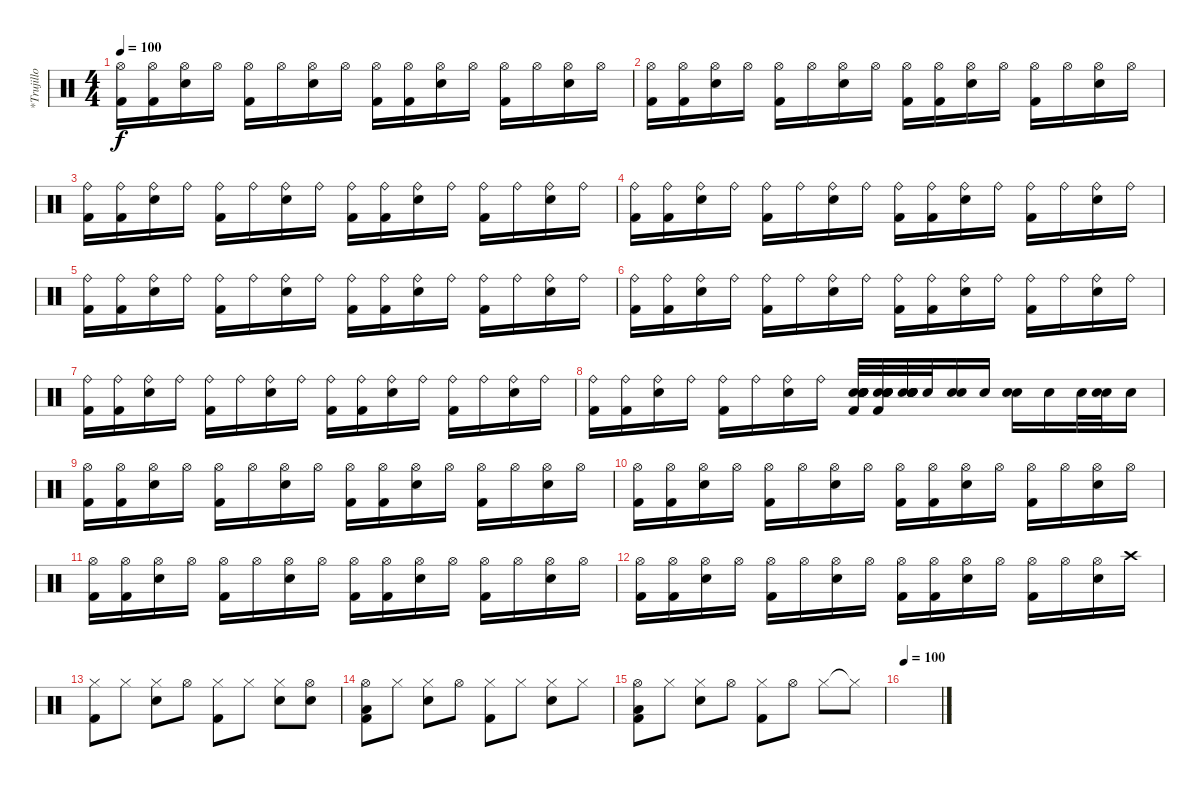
\track ("*Trujillo" "*Trujillo") {instrument percussion}
\staff {score}
\articulation defaults
\ts (4 4)
\tempo 100
\clef neutral
\ks c
("Hi-Hat (open)" "Kick (hit) 2").16{dy f} ("Hi-Hat (open)" "Kick (hit) 2").16 ("Hi-Hat (open)" "Electric Snare (hit)").16 "Hi-Hat (open)".16 ("Hi-Hat (open)" "Kick (hit) 2").16 "Hi-Hat (open)".16 ("Hi-Hat (open)" "Electric Snare (hit)").16 "Hi-Hat (open)".16 ("Hi-Hat (open)" "Kick (hit) 2").16 ("Hi-Hat (open)" "Kick (hit) 2").16 ("Hi-Hat (open)" "Electric Snare (hit)").16 "Hi-Hat (open)".16 ("Hi-Hat (open)" "Kick (hit) 2").16 "Hi-Hat (open)".16 ("Hi-Hat (open)" "Electric Snare (hit)").16 "Hi-Hat (open)".16 |
("Hi-Hat (open)" "Kick (hit) 2").16 ("Hi-Hat (open)" "Kick (hit) 2").16 ("Hi-Hat (open)" "Electric Snare (hit)").16 "Hi-Hat (open)".16 ("Hi-Hat (open)" "Kick (hit) 2").16 "Hi-Hat (open)".16 ("Hi-Hat (open)" "Electric Snare (hit)").16 "Hi-Hat (open)".16 ("Hi-Hat (open)" "Kick (hit) 2").16 ("Hi-Hat (open)" "Kick (hit) 2").16 ("Hi-Hat (open)" "Electric Snare (hit)").16 "Hi-Hat (open)".16 ("Hi-Hat (open)" "Kick (hit) 2").16 "Hi-Hat (open)".16 ("Hi-Hat (open)" "Electric Snare (hit)").16 "Hi-Hat (open)".16 |
("Ride (bell)" "Kick (hit) 2").16 ("Ride (bell)" "Kick (hit) 2").16 ("Ride (bell)" "Electric Snare (hit)").16 "Ride (bell)".16 ("Ride (bell)" "Kick (hit) 2").16 "Ride (bell)".16 ("Ride (bell)" "Electric Snare (hit)").16 "Ride (bell)".16 ("Ride (bell)" "Kick (hit) 2").16 ("Ride (bell)" "Kick (hit) 2").16 ("Ride (bell)" "Electric Snare (hit)").16 "Ride (bell)".16 ("Ride (bell)" "Kick (hit) 2").16 "Ride (bell)".16 ("Ride (bell)" "Electric Snare (hit)").16 "Ride (bell)".16 |
("Ride (bell)" "Kick (hit) 2").16 ("Ride (bell)" "Kick (hit) 2").16 ("Ride (bell)" "Electric Snare (hit)").16 "Ride (bell)".16 ("Ride (bell)" "Kick (hit) 2").16 "Ride (bell)".16 ("Ride (bell)" "Electric Snare (hit)").16 "Ride (bell)".16 ("Ride (bell)" "Kick (hit) 2").16 ("Ride (bell)" "Kick (hit) 2").16 ("Ride (bell)" "Electric Snare (hit)").16 "Ride (bell)".16 ("Ride (bell)" "Kick (hit) 2").16 "Ride (bell)".16 ("Ride (bell)" "Electric Snare (hit)").16 "Ride (bell)".16 |
("Ride (bell)" "Kick (hit) 2").16 ("Ride (bell)" "Kick (hit) 2").16 ("Ride (bell)" "Electric Snare (hit)").16 "Ride (bell)".16 ("Ride (bell)" "Kick (hit) 2").16 "Ride (bell)".16 ("Ride (bell)" "Electric Snare (hit)").16 "Ride (bell)".16 ("Ride (bell)" "Kick (hit) 2").16 ("Ride (bell)" "Kick (hit) 2").16 ("Ride (bell)" "Electric Snare (hit)").16 "Ride (bell)".16 ("Ride (bell)" "Kick (hit) 2").16 "Ride (bell)".16 ("Ride (bell)" "Electric Snare (hit)").16 "Ride (bell)".16 |
("Ride (bell)" "Kick (hit) 2").16 ("Ride (bell)" "Kick (hit) 2").16 ("Ride (bell)" "Electric Snare (hit)").16 "Ride (bell)".16 ("Ride (bell)" "Kick (hit) 2").16 "Ride (bell)".16 ("Ride (bell)" "Electric Snare (hit)").16 "Ride (bell)".16 ("Ride (bell)" "Kick (hit) 2").16 ("Ride (bell)" "Kick (hit) 2").16 ("Ride (bell)" "Electric Snare (hit)").16 "Ride (bell)".16 ("Ride (bell)" "Kick (hit) 2").16 "Ride (bell)".16 ("Ride (bell)" "Electric Snare (hit)").16 "Ride (bell)".16 |
("Ride (bell)" "Kick (hit) 2").16 ("Ride (bell)" "Kick (hit) 2").16 ("Ride (bell)" "Electric Snare (hit)").16 "Ride (bell)".16 ("Ride (bell)" "Kick (hit) 2").16 "Ride (bell)".16 ("Ride (bell)" "Electric Snare (hit)").16 "Ride (bell)".16 ("Ride (bell)" "Kick (hit) 2").16 ("Ride (bell)" "Kick (hit) 2").16 ("Ride (bell)" "Electric Snare (hit)").16 "Ride (bell)".16 ("Ride (bell)" "Kick (hit) 2").16 "Ride (bell)".16 ("Ride (bell)" "Electric Snare (hit)").16 "Ride (bell)".16 |
("Ride (bell)" "Kick (hit) 2").16 ("Ride (bell)" "Kick (hit) 2").16 ("Ride (bell)" "Electric Snare (hit)").16 "Ride (bell)".16 ("Ride (bell)" "Kick (hit) 2").16 "Ride (bell)".16 ("Ride (bell)" "Electric Snare (hit)").16 "Ride (bell)".16 ("Snare (hit)"{x} "Snare (hit)"{x} "Electric Snare (hit)" "Snare (hit)"{x} "Snare (hit)"{x} "Kick (hit) 2"{x}).32 ("Snare (hit)"{x} "Snare (hit)"{x} "Electric Snare (hit)"{x} "Snare (hit)"{x} "Snare (hit)"{x} "Kick (hit) 2"{x}).32 ("Snare (hit)"{x} "Snare (hit)"{x} "Electric Snare (hit)" "Snare (hit)"{x} "Electric Snare (hit)"{x} "Snare (hit)"{x}).32 "Electric Snare (hit)".32 ("Electric Snare (hit)" "Electric Snare (hit)").16 "Electric Snare (hit)".16 ("Electric Snare (hit)" "Electric Snare (hit)").16 "Electric Snare (hit)".16 "Electric Snare (hit)".32 ("Electric Snare (hit)" "Electric Snare (hit)").32 "Electric Snare (hit)".16 |
("Hi-Hat (open)" "Kick (hit) 2").16 ("Hi-Hat (open)" "Kick (hit) 2").16 ("Hi-Hat (open)" "Electric Snare (hit)").16 "Hi-Hat (open)".16 ("Hi-Hat (open)" "Kick (hit) 2").16 "Hi-Hat (open)".16 ("Hi-Hat (open)" "Electric Snare (hit)").16 "Hi-Hat (open)".16 ("Hi-Hat (open)" "Kick (hit) 2").16 ("Hi-Hat (open)" "Kick (hit) 2").16 ("Hi-Hat (open)" "Electric Snare (hit)").16 "Hi-Hat (open)".16 ("Hi-Hat (open)" "Kick (hit) 2").16 "Hi-Hat (open)".16 ("Hi-Hat (open)" "Electric Snare (hit)").16 "Hi-Hat (open)".16 |
("Hi-Hat (open)" "Kick (hit) 2").16 ("Hi-Hat (open)" "Kick (hit) 2").16 ("Hi-Hat (open)" "Electric Snare (hit)").16 "Hi-Hat (open)".16 ("Hi-Hat (open)" "Kick (hit) 2").16 "Hi-Hat (open)".16 ("Hi-Hat (open)" "Electric Snare (hit)").16 "Hi-Hat (open)".16 ("Hi-Hat (open)" "Kick (hit) 2").16 ("Hi-Hat (open)" "Kick (hit) 2").16 ("Hi-Hat (open)" "Electric Snare (hit)").16 "Hi-Hat (open)".16 ("Hi-Hat (open)" "Kick (hit) 2").16 "Hi-Hat (open)".16 ("Hi-Hat (open)" "Electric Snare (hit)").16 "Hi-Hat (open)".16 |
("Hi-Hat (open)" "Kick (hit) 2").16 ("Hi-Hat (open)" "Kick (hit) 2").16 ("Hi-Hat (open)" "Electric Snare (hit)").16 "Hi-Hat (open)".16 ("Hi-Hat (open)" "Kick (hit) 2").16 "Hi-Hat (open)".16 ("Hi-Hat (open)" "Electric Snare (hit)").16 "Hi-Hat (open)".16 ("Hi-Hat (open)" "Kick (hit) 2").16 ("Hi-Hat (open)" "Kick (hit) 2").16 ("Hi-Hat (open)" "Electric Snare (hit)").16 "Hi-Hat (open)".16 ("Hi-Hat (open)" "Kick (hit) 2").16 "Hi-Hat (open)".16 ("Hi-Hat (open)" "Electric Snare (hit)").16 "Hi-Hat (open)".16 |
("Hi-Hat (open)" "Kick (hit) 2").16 ("Hi-Hat (open)" "Kick (hit) 2").16 ("Hi-Hat (open)" "Electric Snare (hit)").16 "Hi-Hat (open)".16 ("Hi-Hat (open)" "Kick (hit) 2").16 "Hi-Hat (open)".16 ("Hi-Hat (open)" "Electric Snare (hit)").16 "Hi-Hat (open)".16 ("Hi-Hat (open)" "Kick (hit) 2").16 ("Hi-Hat (open)" "Kick (hit) 2").16 ("Hi-Hat (open)" "Electric Snare (hit)").16 "Hi-Hat (open)".16 ("Hi-Hat (open)" "Kick (hit) 2").16 "Hi-Hat (open)".16 ("Hi-Hat (open)" "Electric Snare (hit)").16 "Crash high (hit)".16 |
("Hi-Hat (closed)" "Kick (hit) 2").8 "Hi-Hat (closed)".8 ("Hi-Hat (closed)" "Electric Snare (hit)").8 "Hi-Hat (open)".8 ("Hi-Hat (closed)" "Kick (hit) 2").8 "Hi-Hat (closed)".8 ("Hi-Hat (closed)" "Electric Snare (hit)").8 ("Electric Snare (hit)" "Hi-Hat (open)").8 |
("Low Tom (hit)" "Hi-Hat (open)" "Kick (hit) 2").8 "Hi-Hat (closed)".8 ("Hi-Hat (closed)" "Electric Snare (hit)").8 "Hi-Hat (open)".8 ("Hi-Hat (closed)" "Kick (hit) 2").8 "Hi-Hat (closed)".8 ("Hi-Hat (closed)" "Electric Snare (hit)").8 "Hi-Hat (closed)".8 |
("Low Tom (hit)" "Hi-Hat (open)" "Kick (hit) 2").8 "Hi-Hat (closed)".8 ("Hi-Hat (closed)" "Electric Snare (hit)").8 "Hi-Hat (open)".8 ("Hi-Hat (closed)" "Kick (hit) 2").8 "Hi-Hat (open)".8 "Hi-Hat (closed)".8 "Hi-Hat (closed)"{t}.8 |
\tempo 100
